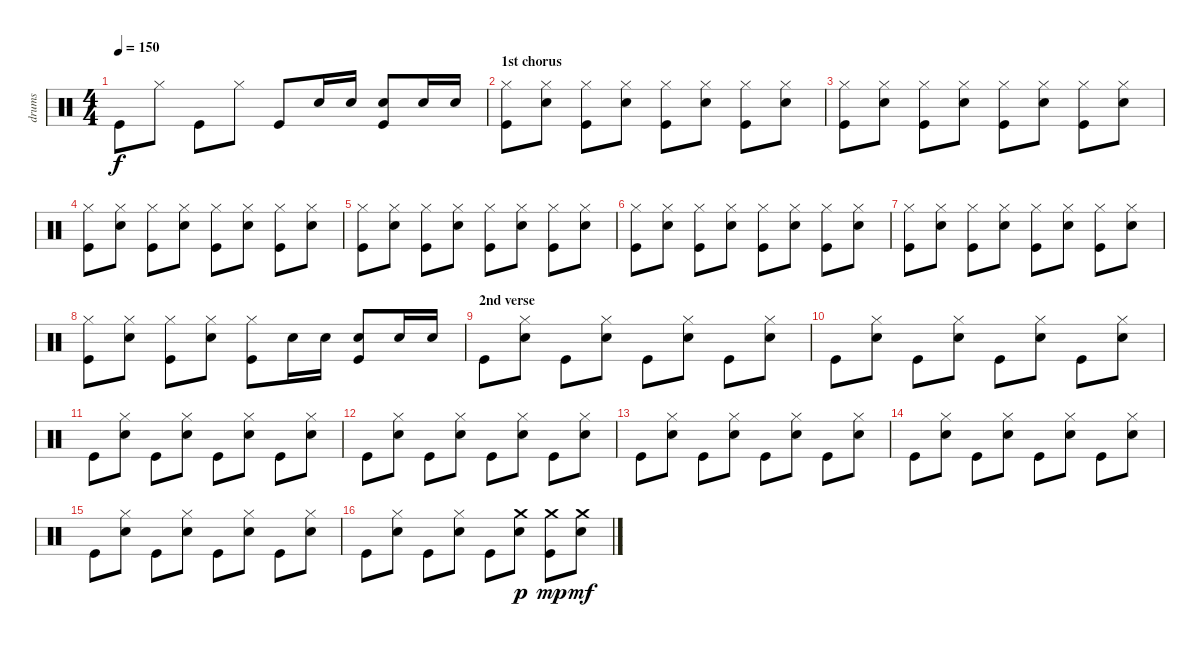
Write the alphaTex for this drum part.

\track ("drums" "drums") {instrument percussion}
\staff {score}
\articulation defaults
\ts (4 4)
\tempo 150
\clef neutral
\ks c "Kick (hit)".8{dy f} "Hi-Hat (closed)".8 "Kick (hit)".8 "Hi-Hat (closed)".8 "Kick (hit)".8 "Electric Snare (hit)".16 "Electric Snare (hit)".16
("Electric Snare (hit)" "Kick (hit)").8 "Electric Snare (hit)".16 "Electric Snare (hit)".16 |
\section ("" "1st chorus")
("Hi-Hat (closed)" "Kick (hit)").8 ("Hi-Hat (closed)" "Electric Snare (hit)").8 ("Hi-Hat (closed)" "Kick (hit)").8 ("Hi-Hat (closed)" "Electric Snare (hit)").8 ("Hi-Hat (closed)" "Kick (hit)").8 ("Hi-Hat (closed)" "Electric Snare (hit)").8 ("Hi-Hat (closed)" "Kick (hit)").8 ("Hi-Hat (closed)" "Electric Snare (hit)").8 |
("Hi-Hat (closed)" "Kick (hit)").8 ("Hi-Hat (closed)" "Electric Snare (hit)").8 ("Hi-Hat (closed)" "Kick (hit)").8 ("Hi-Hat (closed)" "Electric Snare (hit)").8 ("Hi-Hat (closed)" "Kick (hit)").8 ("Hi-Hat (closed)" "Electric Snare (hit)").8 ("Hi-Hat (closed)" "Kick (hit)").8 ("Hi-Hat (closed)" "Electric Snare (hit)").8 |
("Hi-Hat (closed)" "Kick (hit)").8 ("Hi-Hat (closed)" "Electric Snare (hit)").8 ("Hi-Hat (closed)" "Kick (hit)").8 ("Hi-Hat (closed)" "Electric Snare (hit)").8 ("Hi-Hat (closed)" "Kick (hit)").8 ("Hi-Hat (closed)" "Electric Snare (hit)").8 ("Hi-Hat (closed)" "Kick (hit)").8 ("Hi-Hat (closed)" "Electric Snare (hit)").8 |
\section ("" "")
("Hi-Hat (closed)" "Kick (hit)").8 ("Hi-Hat (closed)" "Electric Snare (hit)").8 ("Hi-Hat (closed)" "Kick (hit)").8 ("Hi-Hat (closed)" "Electric Snare (hit)").8 ("Hi-Hat (closed)" "Kick (hit)").8 ("Hi-Hat (closed)" "Electric Snare (hit)").8 ("Hi-Hat (closed)" "Kick (hit)").8 ("Hi-Hat (closed)" "Electric Snare (hit)").8 |
("Hi-Hat (closed)" "Kick (hit)").8 ("Hi-Hat (closed)" "Electric Snare (hit)").8 ("Hi-Hat (closed)" "Kick (hit)").8 ("Hi-Hat (closed)" "Electric Snare (hit)").8 ("Hi-Hat (closed)" "Kick (hit)").8 ("Hi-Hat (closed)" "Electric Snare (hit)").8 ("Hi-Hat (closed)" "Kick (hit)").8 ("Hi-Hat (closed)" "Electric Snare (hit)").8 |
("Hi-Hat (closed)" "Kick (hit)").8 ("Hi-Hat (closed)" "Electric Snare (hit)").8 ("Hi-Hat (closed)" "Kick (hit)").8 ("Hi-Hat (closed)" "Electric Snare (hit)").8 ("Hi-Hat (closed)" "Kick (hit)").8 ("Hi-Hat (closed)" "Electric Snare (hit)").8 ("Hi-Hat (closed)" "Kick (hit)").8 ("Hi-Hat (closed)" "Electric Snare (hit)").8 |
("Hi-Hat (closed)" "Kick (hit)").8 ("Hi-Hat (closed)" "Electric Snare (hit)").8 ("Hi-Hat (closed)" "Kick (hit)").8 ("Hi-Hat (closed)" "Electric Snare (hit)").8 ("Hi-Hat (closed)" "Kick (hit)").8 "Electric Snare (hit)".16 "Electric Snare (hit)".16 ("Electric Snare (hit)" "Kick (hit)").8 "Electric Snare (hit)".16 "Electric Snare (hit)".16 |
\section ("" "2nd verse")
"Kick (hit)".8 ("Hi-Hat (closed)" "Electric Snare (hit)").8 "Kick (hit)".8 ("Hi-Hat (closed)" "Electric Snare (hit)").8 "Kick (hit)".8 ("Hi-Hat (closed)" "Electric Snare (hit)").8 "Kick (hit)".8 ("Hi-Hat (closed)" "Electric Snare (hit)").8 |
"Kick (hit)".8 ("Hi-Hat (closed)" "Electric Snare (hit)").8 "Kick (hit)".8 ("Hi-Hat (closed)" "Electric Snare (hit)").8 "Kick (hit)".8 ("Hi-Hat (closed)" "Electric Snare (hit)").8 "Kick (hit)".8 ("Hi-Hat (closed)" "Electric Snare (hit)").8 |
"Kick (hit)".8 ("Hi-Hat (closed)" "Electric Snare (hit)").8 "Kick (hit)".8 ("Hi-Hat (closed)" "Electric Snare (hit)").8 "Kick (hit)".8 ("Hi-Hat (closed)" "Electric Snare (hit)").8 "Kick (hit)".8 ("Hi-Hat (closed)" "Electric Snare (hit)").8 |
"Kick (hit)".8 ("Hi-Hat (closed)" "Electric Snare (hit)").8 "Kick (hit)".8 ("Hi-Hat (closed)" "Electric Snare (hit)").8 "Kick (hit)".8 ("Hi-Hat (closed)" "Electric Snare (hit)").8 "Kick (hit)".8 ("Hi-Hat (closed)" "Electric Snare (hit)").8 |
"Kick (hit)".8 ("Hi-Hat (closed)" "Electric Snare (hit)").8 "Kick (hit)".8 ("Hi-Hat (closed)" "Electric Snare (hit)").8 "Kick (hit)".8 ("Hi-Hat (closed)" "Electric Snare (hit)").8 "Kick (hit)".8 ("Hi-Hat (closed)" "Electric Snare (hit)").8 |
"Kick (hit)".8 ("Hi-Hat (closed)" "Electric Snare (hit)").8 "Kick (hit)".8 ("Hi-Hat (closed)" "Electric Snare (hit)").8 "Kick (hit)".8 ("Hi-Hat (closed)" "Electric Snare (hit)").8 "Kick (hit)".8 ("Hi-Hat (closed)" "Electric Snare (hit)").8 |
"Kick (hit)".8 ("Hi-Hat (closed)" "Electric Snare (hit)").8 "Kick (hit)".8 ("Hi-Hat (closed)" "Electric Snare (hit)").8 "Kick (hit)".8 ("Hi-Hat (closed)" "Electric Snare (hit)").8 "Kick (hit)".8 ("Hi-Hat (closed)" "Electric Snare (hit)").8 |
"Kick (hit)".8 ("Hi-Hat (closed)" "Electric Snare (hit)").8 "Kick (hit)".8 ("Hi-Hat (closed)" "Electric Snare (hit)").8 "Kick (hit)".8 ("Crash medium (hit)" "Electric Snare (hit)").8{dy p} ("Crash medium (hit)" "Kick (hit)").8{dy mp} ("Crash medium (hit)" "Electric Snare (hit)").8{dy mf}
